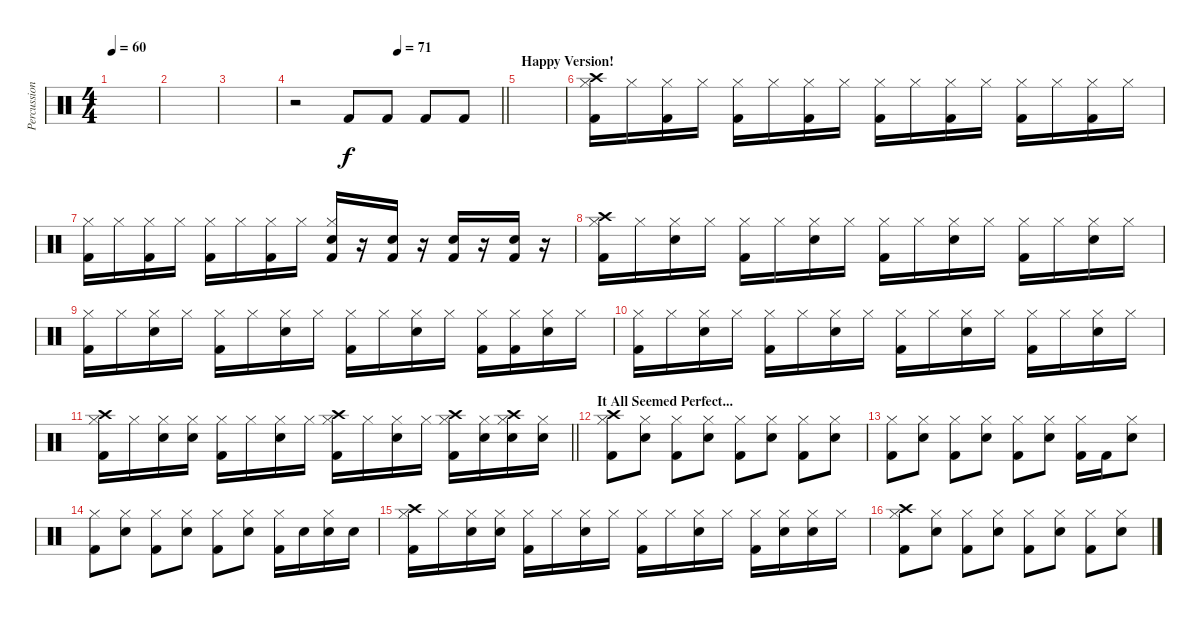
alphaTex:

\track ("Percussion" "Percussion") {instrument percussion}
\staff {score}
\articulation defaults
\ts (4 4)
\tempo 60
\clef neutral
\ks c
|
|
|
\tempo (71 0.5)
\barLineRight lightlight
r.2 "Kick (hit) 2".8 "Kick (hit) 2".8 "Kick (hit) 2".8 "Kick (hit) 2".8 |
\section ("" "Happy Version!")
|
("Crash high (hit)" "Hi-Hat (closed)" "Kick (hit) 2").16 "Hi-Hat (closed)".16 ("Hi-Hat (closed)" "Kick (hit) 2").16 "Hi-Hat (closed)".16 ("Hi-Hat (closed)" "Kick (hit) 2").16 "Hi-Hat (closed)".16 ("Hi-Hat (closed)" "Kick (hit) 2").16 "Hi-Hat (closed)".16 ("Hi-Hat (closed)" "Kick (hit) 2").16 "Hi-Hat (closed)".16 ("Hi-Hat (closed)" "Kick (hit) 2").16 "Hi-Hat (closed)".16 ("Hi-Hat (closed)" "Kick (hit) 2").16 "Hi-Hat (closed)".16 ("Hi-Hat (closed)" "Kick (hit) 2").16 "Hi-Hat (closed)".16 |
("Hi-Hat (closed)" "Kick (hit) 2").16 "Hi-Hat (closed)".16 ("Hi-Hat (closed)" "Kick (hit) 2").16 "Hi-Hat (closed)".16 ("Hi-Hat (closed)" "Kick (hit) 2").16 "Hi-Hat (closed)".16 ("Hi-Hat (closed)" "Kick (hit) 2").16 "Hi-Hat (closed)".16 ("Hi-Hat (closed)" "Kick (hit) 2" "Snare (hit) 2").16 r.16 ("Kick (hit) 2" "Snare (hit) 2").16 r.16 ("Kick (hit) 2" "Snare (hit) 2").16 r.16 ("Kick (hit) 2" "Snare (hit) 2").16 r.16 |
("Crash high (hit)" "Hi-Hat (closed)" "Kick (hit) 2").16 "Hi-Hat (closed)".16 ("Hi-Hat (closed)" "Snare (hit) 2").16 "Hi-Hat (closed)".16 ("Hi-Hat (closed)" "Kick (hit) 2").16 "Hi-Hat (closed)".16 ("Hi-Hat (closed)" "Snare (hit) 2").16 "Hi-Hat (closed)".16 ("Hi-Hat (closed)" "Kick (hit) 2").16 "Hi-Hat (closed)".16 ("Hi-Hat (closed)" "Snare (hit) 2").16 "Hi-Hat (closed)".16 ("Hi-Hat (closed)" "Kick (hit) 2").16 "Hi-Hat (closed)".16 ("Hi-Hat (closed)" "Snare (hit) 2").16 "Hi-Hat (closed)".16 |
("Hi-Hat (closed)" "Kick (hit) 2").16 "Hi-Hat (closed)".16 ("Hi-Hat (closed)" "Snare (hit) 2").16 "Hi-Hat (closed)".16 ("Hi-Hat (closed)" "Kick (hit) 2").16 "Hi-Hat (closed)".16 ("Hi-Hat (closed)" "Snare (hit) 2").16 "Hi-Hat (closed)".16 ("Hi-Hat (closed)" "Kick (hit) 2").16 "Hi-Hat (closed)".16 ("Hi-Hat (closed)" "Snare (hit) 2").16 "Hi-Hat (closed)".16 ("Hi-Hat (closed)" "Kick (hit) 2").16 ("Hi-Hat (closed)" "Kick (hit) 2").16 ("Hi-Hat (closed)" "Snare (hit) 2").16 "Hi-Hat (closed)".16 |
("Hi-Hat (closed)" "Kick (hit) 2").16 "Hi-Hat (closed)".16 ("Hi-Hat (closed)" "Snare (hit) 2").16 "Hi-Hat (closed)".16 ("Hi-Hat (closed)" "Kick (hit) 2").16 "Hi-Hat (closed)".16 ("Hi-Hat (closed)" "Snare (hit) 2").16 "Hi-Hat (closed)".16 ("Hi-Hat (closed)" "Kick (hit) 2").16 "Hi-Hat (closed)".16 ("Hi-Hat (closed)" "Snare (hit) 2").16 "Hi-Hat (closed)".16 ("Hi-Hat (closed)" "Kick (hit) 2").16 "Hi-Hat (closed)".16 ("Hi-Hat (closed)" "Snare (hit) 2").16 "Hi-Hat (closed)".16 |
\barLineRight lightlight
("Crash high (hit)" "Hi-Hat (closed)" "Kick (hit) 2").16 "Hi-Hat (closed)".16 ("Hi-Hat (closed)" "Snare (hit) 2").16 ("Hi-Hat (closed)" "Snare (hit) 2").16 ("Hi-Hat (closed)" "Kick (hit) 2").16 "Hi-Hat (closed)".16 ("Hi-Hat (closed)" "Snare (hit) 2").16 "Hi-Hat (closed)".16 ("Crash high (hit)" "Hi-Hat (closed)" "Kick (hit) 2").16 "Hi-Hat (closed)".16 ("Hi-Hat (closed)" "Snare (hit) 2").16 "Hi-Hat (closed)".16 ("Crash high (hit)" "Hi-Hat (closed)" "Kick (hit) 2").16 ("Hi-Hat (closed)" "Snare (hit) 2").16 ("Crash high (hit)" "Hi-Hat (closed)" "Snare (hit) 2").16 ("Hi-Hat (closed)" "Snare (hit) 2").16 |
\section ("" "It All Seemed Perfect...")
("Crash high (hit)" "Kick (hit) 2" "Hi-Hat (closed)").8 ("Snare (hit) 2" "Hi-Hat (closed)").8 ("Kick (hit) 2" "Hi-Hat (closed)").8 ("Snare (hit) 2" "Hi-Hat (closed)").8 ("Kick (hit) 2" "Hi-Hat (closed)").8 ("Snare (hit) 2" "Hi-Hat (closed)").8 ("Kick (hit) 2" "Hi-Hat (closed)").8 ("Snare (hit) 2" "Hi-Hat (closed)").8 |
("Kick (hit) 2" "Hi-Hat (closed)").8 ("Snare (hit) 2" "Hi-Hat (closed)").8 ("Kick (hit) 2" "Hi-Hat (closed)").8 ("Snare (hit) 2" "Hi-Hat (closed)").8 ("Kick (hit) 2" "Hi-Hat (closed)").8 ("Snare (hit) 2" "Hi-Hat (closed)").8 ("Kick (hit) 2" "Hi-Hat (closed)").16 "Kick (hit) 2".16 ("Snare (hit) 2" "Hi-Hat (closed)").8 |
("Kick (hit) 2" "Hi-Hat (closed)").8 ("Snare (hit) 2" "Hi-Hat (closed)").8 ("Kick (hit) 2" "Hi-Hat (closed)").8 ("Snare (hit) 2" "Hi-Hat (closed)").8 ("Kick (hit) 2" "Hi-Hat (closed)").8 ("Snare (hit) 2" "Hi-Hat (closed)").8 ("Kick (hit) 2" "Hi-Hat (closed)").16 "Snare (hit) 2".16 ("Snare (hit) 2" "Hi-Hat (closed)").16 "Snare (hit) 2".16 |
("Crash high (hit)" "Hi-Hat (closed)" "Kick (hit) 2").16 "Hi-Hat (closed)".16 ("Hi-Hat (closed)" "Snare (hit) 2").16 ("Hi-Hat (closed)" "Snare (hit) 2").16 ("Hi-Hat (closed)" "Kick (hit) 2").16 "Hi-Hat (closed)".16 ("Hi-Hat (closed)" "Snare (hit) 2").16 "Hi-Hat (closed)".16 ("Hi-Hat (closed)" "Kick (hit) 2").16 "Hi-Hat (closed)".16 ("Hi-Hat (closed)" "Snare (hit) 2").16 "Hi-Hat (closed)".16 ("Hi-Hat (closed)" "Kick (hit) 2").16 ("Hi-Hat (closed)" "Snare (hit) 2").16 ("Hi-Hat (closed)" "Snare (hit) 2").16 "Hi-Hat (closed)".16 |
("Crash high (hit)" "Kick (hit) 2" "Hi-Hat (closed)").8 ("Snare (hit) 2" "Hi-Hat (closed)").8 ("Kick (hit) 2" "Hi-Hat (closed)").8 ("Snare (hit) 2" "Hi-Hat (closed)").8 ("Kick (hit) 2" "Hi-Hat (closed)").8 ("Snare (hit) 2" "Hi-Hat (closed)").8 ("Kick (hit) 2" "Hi-Hat (closed)").8 ("Snare (hit) 2" "Hi-Hat (closed)").8
